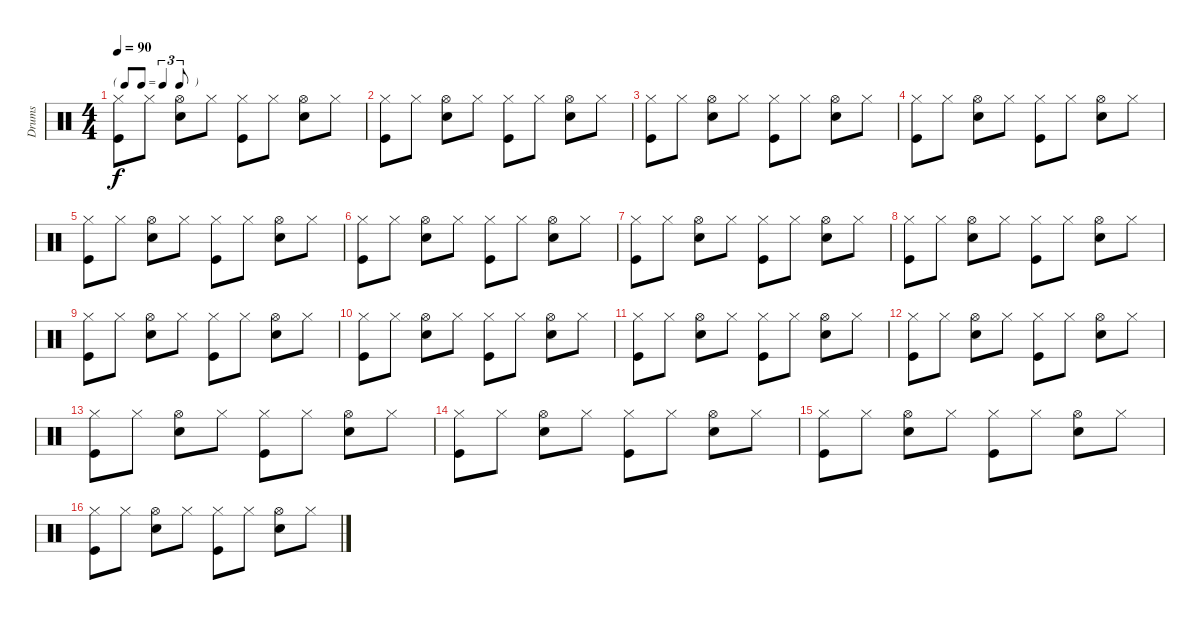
\track ("Drums" "Drums") {instrument percussion}
\staff {score}
\articulation defaults
\ts (4 4)
\tf triplet8th
\tempo 90
\clef neutral
\ks c
("Hi-Hat (closed)" "Kick (hit)").8{dy f} "Hi-Hat (closed)".8 ("Hi-Hat (open)" "Snare (hit) 2").8 "Hi-Hat (closed)".8 ("Hi-Hat (closed)" "Kick (hit)").8 "Hi-Hat (closed)".8 ("Hi-Hat (open)" "Snare (hit) 2").8 "Hi-Hat (closed)".8 |
("Hi-Hat (closed)" "Kick (hit)").8 "Hi-Hat (closed)".8 ("Hi-Hat (open)" "Snare (hit) 2").8 "Hi-Hat (closed)".8 ("Hi-Hat (closed)" "Kick (hit)").8 "Hi-Hat (closed)".8 ("Hi-Hat (open)" "Snare (hit) 2").8 "Hi-Hat (closed)".8 |
("Hi-Hat (closed)" "Kick (hit)").8 "Hi-Hat (closed)".8 ("Hi-Hat (open)" "Snare (hit) 2").8 "Hi-Hat (closed)".8 ("Hi-Hat (closed)" "Kick (hit)").8 "Hi-Hat (closed)".8 ("Hi-Hat (open)" "Snare (hit) 2").8 "Hi-Hat (closed)".8 |
("Hi-Hat (closed)" "Kick (hit)").8 "Hi-Hat (closed)".8 ("Hi-Hat (open)" "Snare (hit) 2").8 "Hi-Hat (closed)".8 ("Hi-Hat (closed)" "Kick (hit)").8 "Hi-Hat (closed)".8 ("Hi-Hat (open)" "Snare (hit) 2").8 "Hi-Hat (closed)".8 |
("Hi-Hat (closed)" "Kick (hit)").8 "Hi-Hat (closed)".8 ("Hi-Hat (open)" "Snare (hit) 2").8 "Hi-Hat (closed)".8 ("Hi-Hat (closed)" "Kick (hit)").8 "Hi-Hat (closed)".8 ("Hi-Hat (open)" "Snare (hit) 2").8 "Hi-Hat (closed)".8 |
("Hi-Hat (closed)" "Kick (hit)").8 "Hi-Hat (closed)".8 ("Hi-Hat (open)" "Snare (hit) 2").8 "Hi-Hat (closed)".8 ("Hi-Hat (closed)" "Kick (hit)").8 "Hi-Hat (closed)".8 ("Hi-Hat (open)" "Snare (hit) 2").8 "Hi-Hat (closed)".8 |
("Hi-Hat (closed)" "Kick (hit)").8 "Hi-Hat (closed)".8 ("Hi-Hat (open)" "Snare (hit) 2").8 "Hi-Hat (closed)".8 ("Hi-Hat (closed)" "Kick (hit)").8 "Hi-Hat (closed)".8 ("Hi-Hat (open)" "Snare (hit) 2").8 "Hi-Hat (closed)".8 |
("Hi-Hat (closed)" "Kick (hit)").8 "Hi-Hat (closed)".8 ("Hi-Hat (open)" "Snare (hit) 2").8 "Hi-Hat (closed)".8 ("Hi-Hat (closed)" "Kick (hit)").8 "Hi-Hat (closed)".8 ("Hi-Hat (open)" "Snare (hit) 2").8 "Hi-Hat (closed)".8 |
("Hi-Hat (closed)" "Kick (hit)").8 "Hi-Hat (closed)".8 ("Hi-Hat (open)" "Snare (hit) 2").8 "Hi-Hat (closed)".8 ("Hi-Hat (closed)" "Kick (hit)").8 "Hi-Hat (closed)".8 ("Hi-Hat (open)" "Snare (hit) 2").8 "Hi-Hat (closed)".8 |
("Hi-Hat (closed)" "Kick (hit)").8 "Hi-Hat (closed)".8 ("Hi-Hat (open)" "Snare (hit) 2").8 "Hi-Hat (closed)".8 ("Hi-Hat (closed)" "Kick (hit)").8 "Hi-Hat (closed)".8 ("Hi-Hat (open)" "Snare (hit) 2").8 "Hi-Hat (closed)".8 |
("Hi-Hat (closed)" "Kick (hit)").8 "Hi-Hat (closed)".8 ("Hi-Hat (open)" "Snare (hit) 2").8 "Hi-Hat (closed)".8 ("Hi-Hat (closed)" "Kick (hit)").8 "Hi-Hat (closed)".8 ("Hi-Hat (open)" "Snare (hit) 2").8 "Hi-Hat (closed)".8 |
("Hi-Hat (closed)" "Kick (hit)").8 "Hi-Hat (closed)".8 ("Hi-Hat (open)" "Snare (hit) 2").8 "Hi-Hat (closed)".8 ("Hi-Hat (closed)" "Kick (hit)").8 "Hi-Hat (closed)".8 ("Hi-Hat (open)" "Snare (hit) 2").8 "Hi-Hat (closed)".8 |
("Hi-Hat (closed)" "Kick (hit)").8 "Hi-Hat (closed)".8 ("Hi-Hat (open)" "Snare (hit) 2").8 "Hi-Hat (closed)".8 ("Hi-Hat (closed)" "Kick (hit)").8 "Hi-Hat (closed)".8 ("Hi-Hat (open)" "Snare (hit) 2").8 "Hi-Hat (closed)".8 |
("Hi-Hat (closed)" "Kick (hit)").8 "Hi-Hat (closed)".8 ("Hi-Hat (open)" "Snare (hit) 2").8 "Hi-Hat (closed)".8 ("Hi-Hat (closed)" "Kick (hit)").8 "Hi-Hat (closed)".8 ("Hi-Hat (open)" "Snare (hit) 2").8 "Hi-Hat (closed)".8 |
("Hi-Hat (closed)" "Kick (hit)").8 "Hi-Hat (closed)".8 ("Hi-Hat (open)" "Snare (hit) 2").8 "Hi-Hat (closed)".8 ("Hi-Hat (closed)" "Kick (hit)").8 "Hi-Hat (closed)".8 ("Hi-Hat (open)" "Snare (hit) 2").8 "Hi-Hat (closed)".8 |
("Hi-Hat (closed)" "Kick (hit)").8 "Hi-Hat (closed)".8 ("Hi-Hat (open)" "Snare (hit) 2").8 "Hi-Hat (closed)".8 ("Hi-Hat (closed)" "Kick (hit)").8 "Hi-Hat (closed)".8 ("Hi-Hat (open)" "Snare (hit) 2").8 "Hi-Hat (closed)".8
